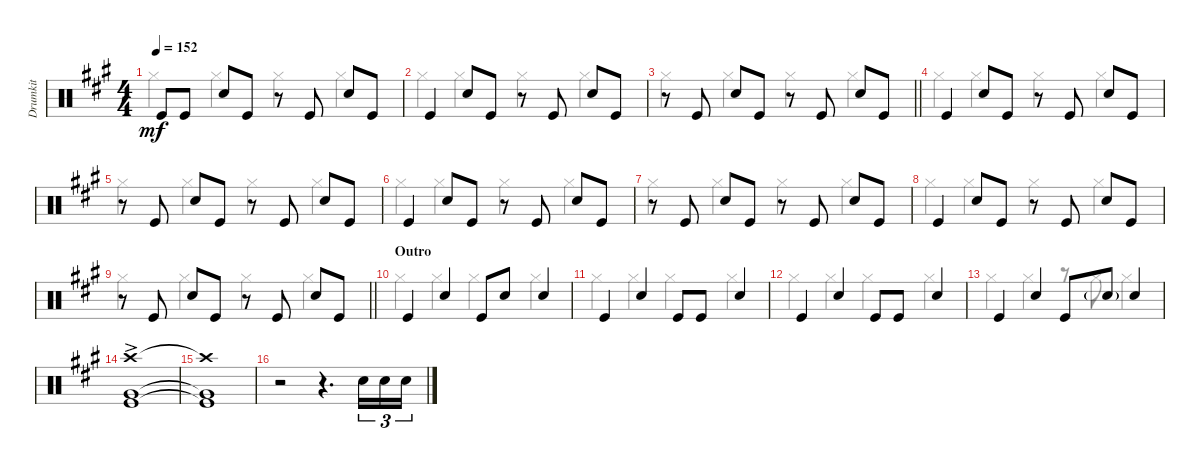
\track ("Drumkit" "Drumkit") {instrument percussion}
\staff {score}
\articulation defaults
\voice
\ts (4 4)
\tempo 152
\clef neutral
\ks a "Kick (hit)".8{dy mf} "Kick (hit)".8 "Snare (hit) 2".8 "Kick (hit)".8
r.8 "Kick (hit)".8 "Snare (hit) 2".8 "Kick (hit)".8 |
"Kick (hit)".4 "Snare (hit) 2".8 "Kick (hit)".8 r.8 "Kick (hit)".8 "Snare (hit) 2".8 "Kick (hit)".8 |
\barLineRight lightlight
r.8 "Kick (hit)".8 "Snare (hit) 2".8 "Kick (hit)".8 r.8 "Kick (hit)".8 "Snare (hit) 2".8 "Kick (hit)".8 |
"Kick (hit)".4 "Snare (hit) 2".8 "Kick (hit)".8 r.8 "Kick (hit)".8 "Snare (hit) 2".8 "Kick (hit)".8 |
r.8 "Kick (hit)".8 "Snare (hit) 2".8 "Kick (hit)".8 r.8 "Kick (hit)".8 "Snare (hit) 2".8 "Kick (hit)".8 |
"Kick (hit)".4 "Snare (hit) 2".8 "Kick (hit)".8 r.8 "Kick (hit)".8 "Snare (hit) 2".8 "Kick (hit)".8 |
r.8 "Kick (hit)".8 "Snare (hit) 2".8 "Kick (hit)".8 r.8 "Kick (hit)".8 "Snare (hit) 2".8 "Kick (hit)".8 |
"Kick (hit)".4 "Snare (hit) 2".8 "Kick (hit)".8 r.8 "Kick (hit)".8 "Snare (hit) 2".8 "Kick (hit)".8 |
\barLineRight lightlight
r.8 "Kick (hit)".8 "Snare (hit) 2".8 "Kick (hit)".8 r.8 "Kick (hit)".8 "Snare (hit) 2".8 "Kick (hit)".8 |
\section ("" "Outro")
"Kick (hit)".4 "Snare (hit) 2".4 "Kick (hit)".8 "Snare (hit) 2".8 "Snare (hit) 2".4 |
"Kick (hit)".4 "Snare (hit) 2".4 "Kick (hit)".8 "Kick (hit)".8 "Snare (hit) 2".4 |
"Kick (hit)".4 "Snare (hit) 2".4 "Kick (hit)".8 "Kick (hit)".8 "Snare (hit) 2".4 |
"Kick (hit)".4 "Snare (hit) 2".4 "Kick (hit)".8 "Snare (hit) 2"{g}.8 "Snare (hit) 2".4 |
("Kick (hit)" "Very Low Tom (hit)" "Crash high (hit)"{ac}).1 |
("Kick (hit)"{t} "Very Low Tom (hit)"{t} "Crash high (hit)"{t}).1 |
r.2 r.4{d} "Snare (hit) 2".16{tu (3 2)} "Snare (hit) 2".16{tu (3 2)} "Snare (hit) 2".16{tu (3 2)}
\voice
\clef neutral
\ottava regular
\simile none
\ks a "Hi-Hat (closed)".4{dy mf} "Hi-Hat (closed)".4 "Hi-Hat (closed)".4 "Hi-Hat (closed)".4
|
"Hi-Hat (closed)".4 "Hi-Hat (closed)".4 "Hi-Hat (closed)".4 "Hi-Hat (closed)".4 |
\barLineRight lightlight "Hi-Hat (closed)".4 "Hi-Hat (closed)".4 "Hi-Hat (closed)".4 "Hi-Hat (closed)".4
|
"Hi-Hat (closed)".4 "Hi-Hat (closed)".4 "Hi-Hat (closed)".4 "Hi-Hat (closed)".4 |
"Hi-Hat (closed)".4 "Hi-Hat (closed)".4 "Hi-Hat (closed)".4 "Hi-Hat (closed)".4 |
"Hi-Hat (closed)".4 "Hi-Hat (closed)".4 "Hi-Hat (closed)".4 "Hi-Hat (closed)".4 |
"Hi-Hat (closed)".4 "Hi-Hat (closed)".4 "Hi-Hat (closed)".4 "Hi-Hat (closed)".4 |
"Hi-Hat (closed)".4 "Hi-Hat (closed)".4 "Hi-Hat (closed)".4 "Hi-Hat (closed)".4 |
\barLineRight lightlight "Hi-Hat (closed)".4 "Hi-Hat (closed)".4 "Hi-Hat (closed)".4 "Hi-Hat (closed)".4
|
"Hi-Hat (closed)".4 "Hi-Hat (closed)".4 "Hi-Hat (closed)".4 "Hi-Hat (closed)".4 |
"Hi-Hat (closed)".4 "Hi-Hat (closed)".4 "Hi-Hat (closed)".4 "Hi-Hat (closed)".4 |
"Hi-Hat (closed)".4 "Hi-Hat (closed)".4 "Hi-Hat (closed)".4 "Hi-Hat (closed)".4 |
"Hi-Hat (closed)".4 "Hi-Hat (closed)".4 r.8 "Hi-Hat (closed)".8 "Hi-Hat (closed)".4 |
|
|
